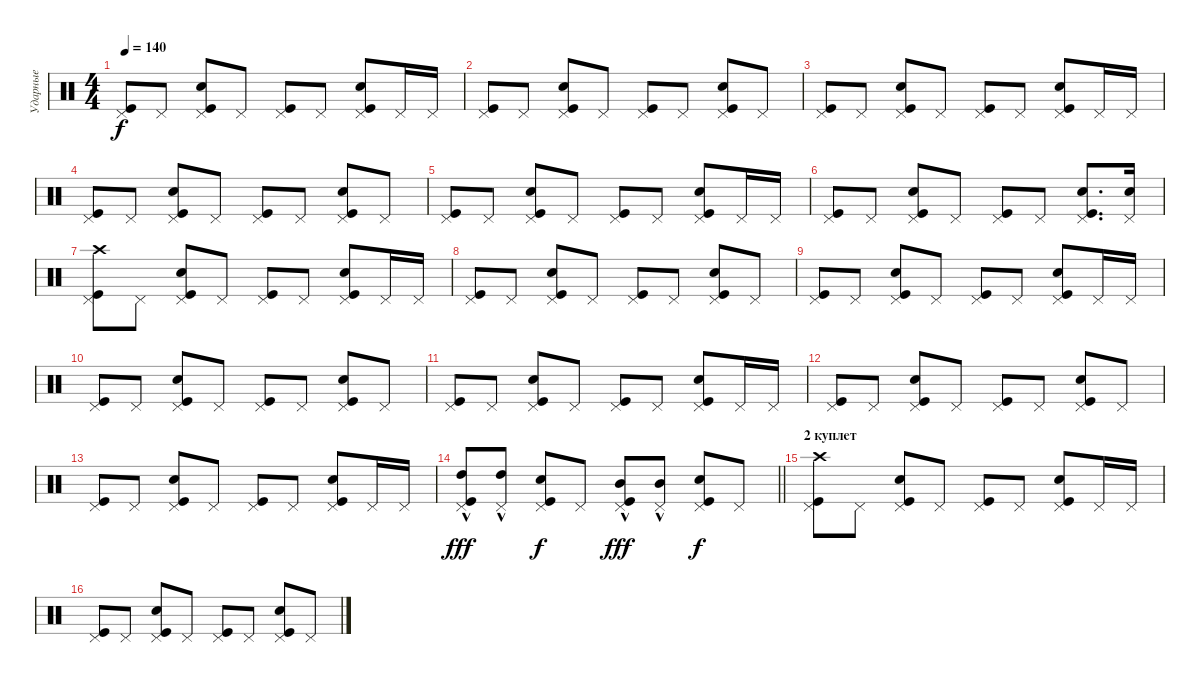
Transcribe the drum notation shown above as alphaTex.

\track ("Ударные" "Ударные") {instrument percussion}
\staff {score}
\articulation defaults
\ts (4 4)
\tempo 140
\clef neutral
\ks c
("Pedal Hi-Hat (hit)" "Kick (hit)").8{dy f} "Pedal Hi-Hat (hit)".8 ("Pedal Hi-Hat (hit)" "Kick (hit)" "Snare (hit) 2").8 "Pedal Hi-Hat (hit)".8 ("Pedal Hi-Hat (hit)" "Kick (hit)").8 "Pedal Hi-Hat (hit)".8 ("Pedal Hi-Hat (hit)" "Kick (hit)" "Snare (hit) 2").8 "Pedal Hi-Hat (hit)".16 "Pedal Hi-Hat (hit)".16 |
("Pedal Hi-Hat (hit)" "Kick (hit)").8 "Pedal Hi-Hat (hit)".8 ("Pedal Hi-Hat (hit)" "Kick (hit)" "Snare (hit) 2").8 "Pedal Hi-Hat (hit)".8 ("Pedal Hi-Hat (hit)" "Kick (hit)").8 "Pedal Hi-Hat (hit)".8 ("Pedal Hi-Hat (hit)" "Kick (hit)" "Snare (hit) 2").8 "Pedal Hi-Hat (hit)".8 |
("Pedal Hi-Hat (hit)" "Kick (hit)").8 "Pedal Hi-Hat (hit)".8 ("Pedal Hi-Hat (hit)" "Kick (hit)" "Snare (hit) 2").8 "Pedal Hi-Hat (hit)".8 ("Pedal Hi-Hat (hit)" "Kick (hit)").8 "Pedal Hi-Hat (hit)".8 ("Pedal Hi-Hat (hit)" "Kick (hit)" "Snare (hit) 2").8 "Pedal Hi-Hat (hit)".16 "Pedal Hi-Hat (hit)".16 |
("Pedal Hi-Hat (hit)" "Kick (hit)").8 "Pedal Hi-Hat (hit)".8 ("Pedal Hi-Hat (hit)" "Kick (hit)" "Snare (hit) 2").8 "Pedal Hi-Hat (hit)".8 ("Pedal Hi-Hat (hit)" "Kick (hit)").8 "Pedal Hi-Hat (hit)".8 ("Pedal Hi-Hat (hit)" "Kick (hit)" "Snare (hit) 2").8 "Pedal Hi-Hat (hit)".8 |
("Pedal Hi-Hat (hit)" "Kick (hit)").8 "Pedal Hi-Hat (hit)".8 ("Pedal Hi-Hat (hit)" "Kick (hit)" "Snare (hit) 2").8 "Pedal Hi-Hat (hit)".8 ("Pedal Hi-Hat (hit)" "Kick (hit)").8 "Pedal Hi-Hat (hit)".8 ("Pedal Hi-Hat (hit)" "Kick (hit)" "Snare (hit) 2").8 "Pedal Hi-Hat (hit)".16 "Pedal Hi-Hat (hit)".16 |
("Pedal Hi-Hat (hit)" "Kick (hit)").8 "Pedal Hi-Hat (hit)".8 ("Pedal Hi-Hat (hit)" "Kick (hit)" "Snare (hit) 2").8 "Pedal Hi-Hat (hit)".8 ("Pedal Hi-Hat (hit)" "Kick (hit)").8 "Pedal Hi-Hat (hit)".8 ("Pedal Hi-Hat (hit)" "Kick (hit)" "Snare (hit) 2").8{d} ("Pedal Hi-Hat (hit)" "Snare (hit) 2").16 |
("Pedal Hi-Hat (hit)" "Kick (hit)" "Crash high (hit)").8 "Pedal Hi-Hat (hit)".8 ("Pedal Hi-Hat (hit)" "Kick (hit)" "Snare (hit) 2").8 "Pedal Hi-Hat (hit)".8 ("Pedal Hi-Hat (hit)" "Kick (hit)").8 "Pedal Hi-Hat (hit)".8 ("Pedal Hi-Hat (hit)" "Kick (hit)" "Snare (hit) 2").8 "Pedal Hi-Hat (hit)".16 "Pedal Hi-Hat (hit)".16 |
("Pedal Hi-Hat (hit)" "Kick (hit)").8 "Pedal Hi-Hat (hit)".8 ("Pedal Hi-Hat (hit)" "Kick (hit)" "Snare (hit) 2").8 "Pedal Hi-Hat (hit)".8 ("Pedal Hi-Hat (hit)" "Kick (hit)").8 "Pedal Hi-Hat (hit)".8 ("Pedal Hi-Hat (hit)" "Kick (hit)" "Snare (hit) 2").8 "Pedal Hi-Hat (hit)".8 |
("Pedal Hi-Hat (hit)" "Kick (hit)").8 "Pedal Hi-Hat (hit)".8 ("Pedal Hi-Hat (hit)" "Kick (hit)" "Snare (hit) 2").8 "Pedal Hi-Hat (hit)".8 ("Pedal Hi-Hat (hit)" "Kick (hit)").8 "Pedal Hi-Hat (hit)".8 ("Pedal Hi-Hat (hit)" "Kick (hit)" "Snare (hit) 2").8 "Pedal Hi-Hat (hit)".16 "Pedal Hi-Hat (hit)".16 |
("Pedal Hi-Hat (hit)" "Kick (hit)").8 "Pedal Hi-Hat (hit)".8 ("Pedal Hi-Hat (hit)" "Kick (hit)" "Snare (hit) 2").8 "Pedal Hi-Hat (hit)".8 ("Pedal Hi-Hat (hit)" "Kick (hit)").8 "Pedal Hi-Hat (hit)".8 ("Pedal Hi-Hat (hit)" "Kick (hit)" "Snare (hit) 2").8 "Pedal Hi-Hat (hit)".8 |
("Pedal Hi-Hat (hit)" "Kick (hit)").8 "Pedal Hi-Hat (hit)".8 ("Pedal Hi-Hat (hit)" "Kick (hit)" "Snare (hit) 2").8 "Pedal Hi-Hat (hit)".8 ("Pedal Hi-Hat (hit)" "Kick (hit)").8 "Pedal Hi-Hat (hit)".8 ("Pedal Hi-Hat (hit)" "Kick (hit)" "Snare (hit) 2").8 "Pedal Hi-Hat (hit)".16 "Pedal Hi-Hat (hit)".16 |
("Pedal Hi-Hat (hit)" "Kick (hit)").8 "Pedal Hi-Hat (hit)".8 ("Pedal Hi-Hat (hit)" "Kick (hit)" "Snare (hit) 2").8 "Pedal Hi-Hat (hit)".8 ("Pedal Hi-Hat (hit)" "Kick (hit)").8 "Pedal Hi-Hat (hit)".8 ("Pedal Hi-Hat (hit)" "Kick (hit)" "Snare (hit) 2").8 "Pedal Hi-Hat (hit)".8 |
("Pedal Hi-Hat (hit)" "Kick (hit)").8 "Pedal Hi-Hat (hit)".8 ("Pedal Hi-Hat (hit)" "Kick (hit)" "Snare (hit) 2").8 "Pedal Hi-Hat (hit)".8 ("Pedal Hi-Hat (hit)" "Kick (hit)").8 "Pedal Hi-Hat (hit)".8 ("Pedal Hi-Hat (hit)" "Kick (hit)" "Snare (hit) 2").8 "Pedal Hi-Hat (hit)".16 "Pedal Hi-Hat (hit)".16 |
\barLineRight lightlight
("Pedal Hi-Hat (hit)" "Kick (hit)" "High Tom (hit)"{hac}).8{dy fff} ("Pedal Hi-Hat (hit)" "High Tom (hit)"{hac}).8 ("Pedal Hi-Hat (hit)" "Kick (hit)" "Snare (hit) 2").8{dy f} "Pedal Hi-Hat (hit)".8 ("Pedal Hi-Hat (hit)" "Kick (hit)" "Mid Tom (hit)"{hac}).8{dy fff} ("Pedal Hi-Hat (hit)" "Mid Tom (hit)"{hac}).8 ("Pedal Hi-Hat (hit)" "Kick (hit)" "Snare (hit) 2").8{dy f} "Pedal Hi-Hat (hit)".8 |
\section ("" "2 куплет")
("Pedal Hi-Hat (hit)" "Kick (hit)" "Crash high (hit)").8 "Pedal Hi-Hat (hit)".8 ("Pedal Hi-Hat (hit)" "Kick (hit)" "Snare (hit) 2").8 "Pedal Hi-Hat (hit)".8 ("Pedal Hi-Hat (hit)" "Kick (hit)").8 "Pedal Hi-Hat (hit)".8 ("Pedal Hi-Hat (hit)" "Kick (hit)" "Snare (hit) 2").8 "Pedal Hi-Hat (hit)".16 "Pedal Hi-Hat (hit)".16 |
("Pedal Hi-Hat (hit)" "Kick (hit)").8 "Pedal Hi-Hat (hit)".8 ("Pedal Hi-Hat (hit)" "Kick (hit)" "Snare (hit) 2").8 "Pedal Hi-Hat (hit)".8 ("Pedal Hi-Hat (hit)" "Kick (hit)").8 "Pedal Hi-Hat (hit)".8 ("Pedal Hi-Hat (hit)" "Kick (hit)" "Snare (hit) 2").8 "Pedal Hi-Hat (hit)".8
